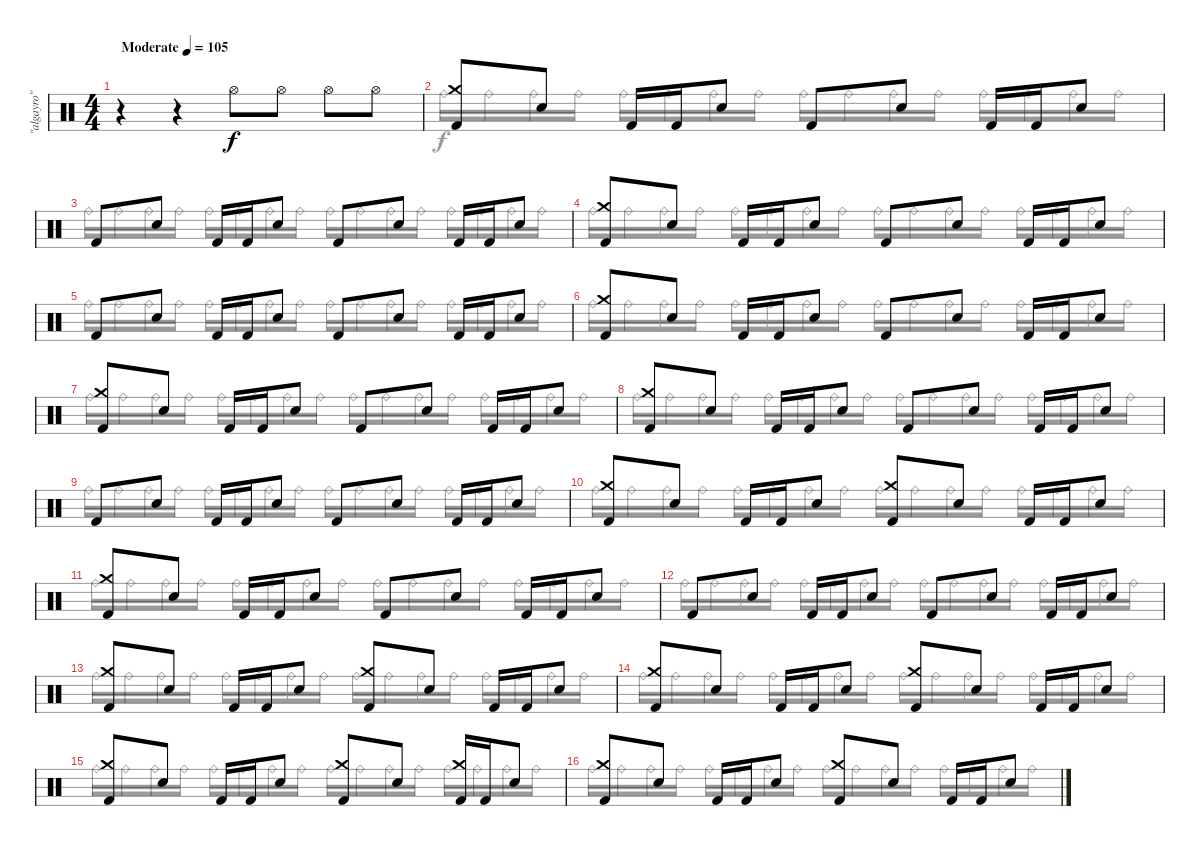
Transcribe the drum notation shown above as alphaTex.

\track ("\"algayro\"" "\"algayro\"") {instrument percussion}
\staff {score}
\articulation defaults
\voice
\ts (4 4)
\tempo (105 "Moderate")
\clef neutral
\ks c
r.4{dy f} r.4 "Hi-Hat (open)".8 "Hi-Hat (open)".8 "Hi-Hat (open)".8 "Hi-Hat (open)".8 |
("Crash medium (hit)" "Kick (hit) 2").8 "Electric Snare (hit)".8 "Kick (hit) 2".16 "Kick (hit) 2".16 "Electric Snare (hit)".8 "Kick (hit) 2".8 "Electric Snare (hit)".8 "Kick (hit) 2".16 "Kick (hit) 2".16 "Electric Snare (hit)".8 |
"Kick (hit) 2".8 "Electric Snare (hit)".8 "Kick (hit) 2".16 "Kick (hit) 2".16 "Electric Snare (hit)".8 "Kick (hit) 2".8 "Electric Snare (hit)".8 "Kick (hit) 2".16 "Kick (hit) 2".16 "Electric Snare (hit)".8 |
("Crash medium (hit)" "Kick (hit) 2").8 "Electric Snare (hit)".8 "Kick (hit) 2".16 "Kick (hit) 2".16 "Electric Snare (hit)".8 "Kick (hit) 2".8 "Electric Snare (hit)".8 "Kick (hit) 2".16 "Kick (hit) 2".16 "Electric Snare (hit)".8 |
"Kick (hit) 2".8 "Electric Snare (hit)".8 "Kick (hit) 2".16 "Kick (hit) 2".16 "Electric Snare (hit)".8 "Kick (hit) 2".8 "Electric Snare (hit)".8 "Kick (hit) 2".16 "Kick (hit) 2".16 "Electric Snare (hit)".8 |
("Crash medium (hit)" "Kick (hit) 2").8 "Electric Snare (hit)".8 "Kick (hit) 2".16 "Kick (hit) 2".16 "Electric Snare (hit)".8 "Kick (hit) 2".8 "Electric Snare (hit)".8 "Kick (hit) 2".16 "Kick (hit) 2".16 "Electric Snare (hit)".8 |
("Crash medium (hit)" "Kick (hit) 2").8 "Electric Snare (hit)".8 "Kick (hit) 2".16 "Kick (hit) 2".16 "Electric Snare (hit)".8 "Kick (hit) 2".8 "Electric Snare (hit)".8 "Kick (hit) 2".16 "Kick (hit) 2".16 "Electric Snare (hit)".8 |
("Crash medium (hit)" "Kick (hit) 2").8 "Electric Snare (hit)".8 "Kick (hit) 2".16 "Kick (hit) 2".16 "Electric Snare (hit)".8 "Kick (hit) 2".8 "Electric Snare (hit)".8 "Kick (hit) 2".16 "Kick (hit) 2".16 "Electric Snare (hit)".8 |
"Kick (hit) 2".8 "Electric Snare (hit)".8 "Kick (hit) 2".16 "Kick (hit) 2".16 "Electric Snare (hit)".8 "Kick (hit) 2".8 "Electric Snare (hit)".8 "Kick (hit) 2".16 "Kick (hit) 2".16 "Electric Snare (hit)".8 |
("Crash medium (hit)" "Kick (hit) 2").8 "Electric Snare (hit)".8 "Kick (hit) 2".16 "Kick (hit) 2".16 "Electric Snare (hit)".8 ("Crash medium (hit)" "Kick (hit) 2").8 "Electric Snare (hit)".8 "Kick (hit) 2".16 "Kick (hit) 2".16 "Electric Snare (hit)".8 |
("Crash medium (hit)" "Kick (hit) 2").8 "Electric Snare (hit)".8 "Kick (hit) 2".16 "Kick (hit) 2".16 "Electric Snare (hit)".8 "Kick (hit) 2".8 "Electric Snare (hit)".8 "Kick (hit) 2".16 "Kick (hit) 2".16 "Electric Snare (hit)".8 |
"Kick (hit) 2".8 "Electric Snare (hit)".8 "Kick (hit) 2".16 "Kick (hit) 2".16 "Electric Snare (hit)".8 "Kick (hit) 2".8 "Electric Snare (hit)".8 "Kick (hit) 2".16 "Kick (hit) 2".16 "Electric Snare (hit)".8 |
("Crash medium (hit)" "Kick (hit) 2").8 "Electric Snare (hit)".8 "Kick (hit) 2".16 "Kick (hit) 2".16 "Electric Snare (hit)".8 ("Crash medium (hit)" "Kick (hit) 2").8 "Electric Snare (hit)".8 "Kick (hit) 2".16 "Kick (hit) 2".16 "Electric Snare (hit)".8 |
("Crash medium (hit)" "Kick (hit) 2").8 "Electric Snare (hit)".8 "Kick (hit) 2".16 "Kick (hit) 2".16 "Electric Snare (hit)".8 ("Crash medium (hit)" "Kick (hit) 2").8 "Electric Snare (hit)".8 "Kick (hit) 2".16 "Kick (hit) 2".16 "Electric Snare (hit)".8 |
("Crash medium (hit)" "Kick (hit) 2").8 "Electric Snare (hit)".8 "Kick (hit) 2".16 "Kick (hit) 2".16 "Electric Snare (hit)".8 ("Crash medium (hit)" "Kick (hit) 2").8 "Electric Snare (hit)".8 ("Crash medium (hit)" "Kick (hit) 2").16 "Kick (hit) 2".16 "Electric Snare (hit)".8 |
("Crash medium (hit)" "Kick (hit) 2").8 "Electric Snare (hit)".8 "Kick (hit) 2".16 "Kick (hit) 2".16 "Electric Snare (hit)".8 ("Crash medium (hit)" "Kick (hit) 2").8 "Electric Snare (hit)".8 "Kick (hit) 2".16 "Kick (hit) 2".16 "Electric Snare (hit)".8
\voice
\clef neutral
\ottava regular
\simile none
\ks c
|
"Ride (bell)".16 "Ride (bell)".16 "Ride (bell)".16 "Ride (bell)".16 "Ride (bell)".16 "Ride (bell)".16 "Ride (bell)".16 "Ride (bell)".16 "Ride (bell)".16 "Ride (bell)".16 "Ride (bell)".16 "Ride (bell)".16 "Ride (bell)".16 "Ride (bell)".16 "Ride (bell)".16 "Ride (bell)".16 |
"Ride (bell)".16 "Ride (bell)".16 "Ride (bell)".16 "Ride (bell)".16 "Ride (bell)".16 "Ride (bell)".16 "Ride (bell)".16 "Ride (bell)".16 "Ride (bell)".16 "Ride (bell)".16 "Ride (bell)".16 "Ride (bell)".16 "Ride (bell)".16 "Ride (bell)".16 "Ride (bell)".16 "Ride (bell)".16 |
"Ride (bell)".16 "Ride (bell)".16 "Ride (bell)".16 "Ride (bell)".16 "Ride (bell)".16 "Ride (bell)".16 "Ride (bell)".16 "Ride (bell)".16 "Ride (bell)".16 "Ride (bell)".16 "Ride (bell)".16 "Ride (bell)".16 "Ride (bell)".16 "Ride (bell)".16 "Ride (bell)".16 "Ride (bell)".16 |
"Ride (bell)".16 "Ride (bell)".16 "Ride (bell)".16 "Ride (bell)".16 "Ride (bell)".16 "Ride (bell)".16 "Ride (bell)".16 "Ride (bell)".16 "Ride (bell)".16 "Ride (bell)".16 "Ride (bell)".16 "Ride (bell)".16 "Ride (bell)".16 "Ride (bell)".16 "Ride (bell)".16 "Ride (bell)".16 |
"Ride (bell)".16 "Ride (bell)".16 "Ride (bell)".16 "Ride (bell)".16 "Ride (bell)".16 "Ride (bell)".16 "Ride (bell)".16 "Ride (bell)".16 "Ride (bell)".16 "Ride (bell)".16 "Ride (bell)".16 "Ride (bell)".16 "Ride (bell)".16 "Ride (bell)".16 "Ride (bell)".16 "Ride (bell)".16 |
"Ride (bell)".16 "Ride (bell)".16 "Ride (bell)".16 "Ride (bell)".16 "Ride (bell)".16 "Ride (bell)".16 "Ride (bell)".16 "Ride (bell)".16 "Ride (bell)".16 "Ride (bell)".16 "Ride (bell)".16 "Ride (bell)".16 "Ride (bell)".16 "Ride (bell)".16 "Ride (bell)".16 "Ride (bell)".16 |
"Ride (bell)".16 "Ride (bell)".16 "Ride (bell)".16 "Ride (bell)".16 "Ride (bell)".16 "Ride (bell)".16 "Ride (bell)".16 "Ride (bell)".16 "Ride (bell)".16 "Ride (bell)".16 "Ride (bell)".16 "Ride (bell)".16 "Ride (bell)".16 "Ride (bell)".16 "Ride (bell)".16 "Ride (bell)".16 |
"Ride (bell)".16 "Ride (bell)".16 "Ride (bell)".16 "Ride (bell)".16 "Ride (bell)".16 "Ride (bell)".16 "Ride (bell)".16 "Ride (bell)".16 "Ride (bell)".16 "Ride (bell)".16 "Ride (bell)".16 "Ride (bell)".16 "Ride (bell)".16 "Ride (bell)".16 "Ride (bell)".16 "Ride (bell)".16 |
"Ride (bell)".16 "Ride (bell)".16 "Ride (bell)".16 "Ride (bell)".16 "Ride (bell)".16 "Ride (bell)".16 "Ride (bell)".16 "Ride (bell)".16 "Ride (bell)".16 "Ride (bell)".16 "Ride (bell)".16 "Ride (bell)".16 "Ride (bell)".16 "Ride (bell)".16 "Ride (bell)".16 "Ride (bell)".16 |
"Ride (bell)".16 "Ride (bell)".16 "Ride (bell)".16 "Ride (bell)".16 "Ride (bell)".16 "Ride (bell)".16 "Ride (bell)".16 "Ride (bell)".16 "Ride (bell)".16 "Ride (bell)".16 "Ride (bell)".16 "Ride (bell)".16 "Ride (bell)".16 "Ride (bell)".16 "Ride (bell)".16 "Ride (bell)".16 |
"Ride (bell)".16 "Ride (bell)".16 "Ride (bell)".16 "Ride (bell)".16 "Ride (bell)".16 "Ride (bell)".16 "Ride (bell)".16 "Ride (bell)".16 "Ride (bell)".16 "Ride (bell)".16 "Ride (bell)".16 "Ride (bell)".16 "Ride (bell)".16 "Ride (bell)".16 "Ride (bell)".16 "Ride (bell)".16 |
"Ride (bell)".16 "Ride (bell)".16 "Ride (bell)".16 "Ride (bell)".16 "Ride (bell)".16 "Ride (bell)".16 "Ride (bell)".16 "Ride (bell)".16 "Ride (bell)".16 "Ride (bell)".16 "Ride (bell)".16 "Ride (bell)".16 "Ride (bell)".16 "Ride (bell)".16 "Ride (bell)".16 "Ride (bell)".16 |
"Ride (bell)".16 "Ride (bell)".16 "Ride (bell)".16 "Ride (bell)".16 "Ride (bell)".16 "Ride (bell)".16 "Ride (bell)".16 "Ride (bell)".16 "Ride (bell)".16 "Ride (bell)".16 "Ride (bell)".16 "Ride (bell)".16 "Ride (bell)".16 "Ride (bell)".16 "Ride (bell)".16 "Ride (bell)".16 |
"Ride (bell)".16 "Ride (bell)".16 "Ride (bell)".16 "Ride (bell)".16 "Ride (bell)".16 "Ride (bell)".16 "Ride (bell)".16 "Ride (bell)".16 "Ride (bell)".16 "Ride (bell)".16 "Ride (bell)".16 "Ride (bell)".16 "Ride (bell)".16 "Ride (bell)".16 "Ride (bell)".16 "Ride (bell)".16 |
"Ride (bell)".16 "Ride (bell)".16 "Ride (bell)".16 "Ride (bell)".16 "Ride (bell)".16 "Ride (bell)".16 "Ride (bell)".16 "Ride (bell)".16 "Ride (bell)".16 "Ride (bell)".16 "Ride (bell)".16 "Ride (bell)".16 "Ride (bell)".16 "Ride (bell)".16 "Ride (bell)".16 "Ride (bell)".16
